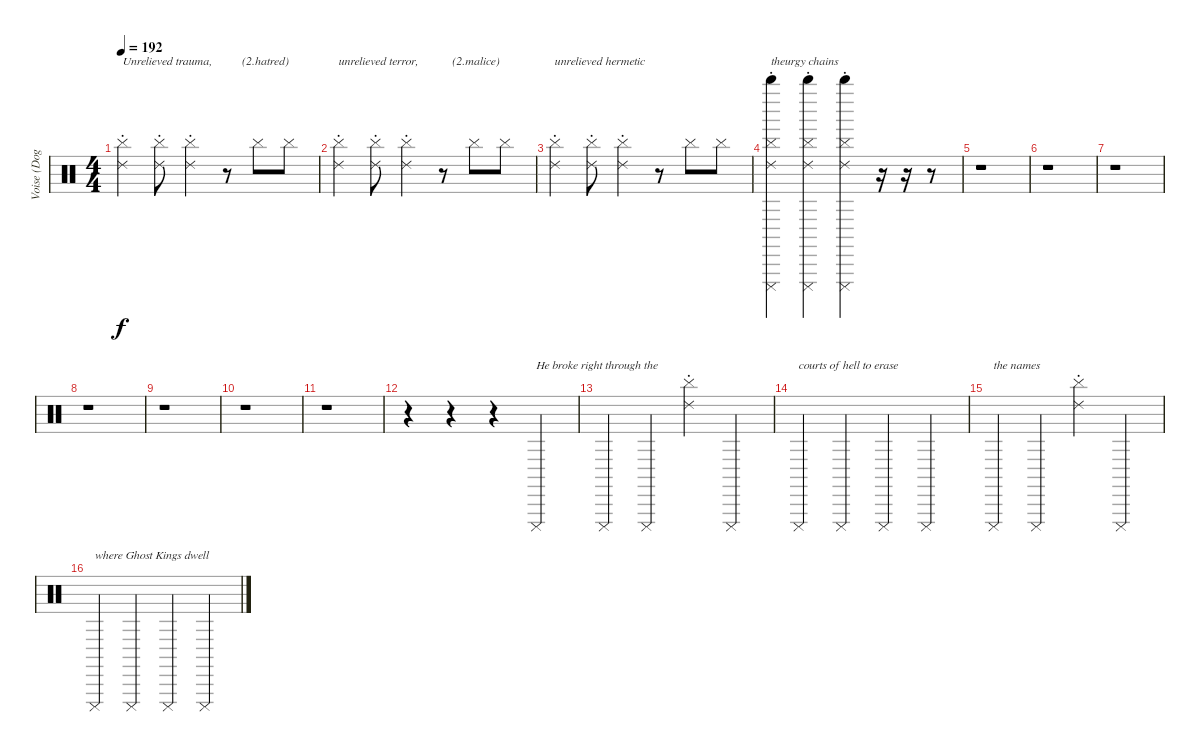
\track ("Voise (Dog)" "Voise (Dog") {instrument percussion}
\staff {score}
\articulation defaults
\ts (4 4)
\tempo 192
\clef neutral
\ks c
("Ride (choke) 2" "Cymbal (hit)").4{txt "Unrelieved trauma, " dy f} ("Ride (choke) 2" "Cymbal (hit)").8 ("Ride (choke) 2" "Cymbal (hit)").4 r.8{txt "     (2.hatred)"} "Cymbal (hit)".8 "Cymbal (hit)".8 |
("Ride (choke) 2" "Cymbal (hit)").4{txt "unrelieved terror,"} ("Ride (choke) 2" "Cymbal (hit)").8 ("Ride (choke) 2" "Cymbal (hit)").4 r.8{txt "   (2.malice)"} "Cymbal (hit)".8 "Cymbal (hit)".8 |
("Ride (choke) 2" "Cymbal (hit)").4{txt "unrelieved hermetic"} ("Ride (choke) 2" "Cymbal (hit)").8 ("Ride (choke) 2" "Cymbal (hit)").4 r.8 "Cymbal (hit)".8 "Cymbal (hit)".8 |
("Cuica (mute)" "Whistle high (hit)" "Ride (choke) 2" "Cymbal (hit)").4{txt "theurgy chains"} ("Cuica (mute)" "Whistle high (hit)" "Ride (choke) 2" "Cymbal (hit)").4 ("Cuica (mute)" "Whistle high (hit)" "Ride (choke) 2" "Cymbal (hit)").4 r.16 r.16 r.8 |
r.1 |
r.1 |
r.1 |
r.1 |
r.1 |
r.1 |
r.1 |
r.4 r.4 r.4 "Cuica (mute)".4{txt "He broke right through the"} |
"Cuica (mute)".4 "Cuica (mute)".4 ("Ride (choke) 2" "Cymbal (hit)").4 "Cuica (mute)".4 |
"Cuica (mute)".4{txt "courts of hell to erase"} "Cuica (mute)".4 "Cuica (mute)".4 "Cuica (mute)".4 |
"Cuica (mute)".4{txt "the names "} "Cuica (mute)".4 ("Ride (choke) 2" "Cymbal (hit)").4 "Cuica (mute)".4 |
"Cuica (mute)".4{txt "where Ghost Kings dwell "} "Cuica (mute)".4 "Cuica (mute)".4 "Cuica (mute)".4
